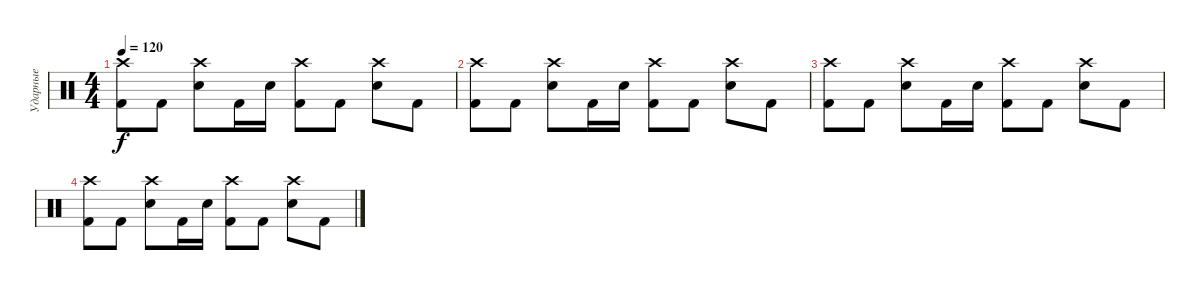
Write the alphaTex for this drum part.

\track ("Ударные" "Ударные") {instrument percussion}
\staff {score}
\articulation defaults
\ts (4 4)
\tempo 120
\clef neutral
\ks c
("Crash high (hit)" "Kick (hit) 2").8{dy f} "Kick (hit) 2".8 ("Crash high (hit)" "Electric Snare (hit)").8 "Kick (hit) 2".16 "Electric Snare (hit)".16 ("Crash high (hit)" "Kick (hit) 2").8 "Kick (hit) 2".8 ("Crash high (hit)" "Electric Snare (hit)").8 "Kick (hit) 2".8 |
("Crash high (hit)" "Kick (hit) 2").8 "Kick (hit) 2".8 ("Crash high (hit)" "Electric Snare (hit)").8 "Kick (hit) 2".16 "Electric Snare (hit)".16 ("Crash high (hit)" "Kick (hit) 2").8 "Kick (hit) 2".8 ("Crash high (hit)" "Electric Snare (hit)").8 "Kick (hit) 2".8 |
("Crash high (hit)" "Kick (hit) 2").8 "Kick (hit) 2".8 ("Crash high (hit)" "Electric Snare (hit)").8 "Kick (hit) 2".16 "Electric Snare (hit)".16 ("Crash high (hit)" "Kick (hit) 2").8 "Kick (hit) 2".8 ("Crash high (hit)" "Electric Snare (hit)").8 "Kick (hit) 2".8 |
("Crash high (hit)" "Kick (hit) 2").8 "Kick (hit) 2".8 ("Crash high (hit)" "Electric Snare (hit)").8 "Kick (hit) 2".16 "Electric Snare (hit)".16 ("Crash high (hit)" "Kick (hit) 2").8 "Kick (hit) 2".8 ("Crash high (hit)" "Electric Snare (hit)").8 "Kick (hit) 2".8
